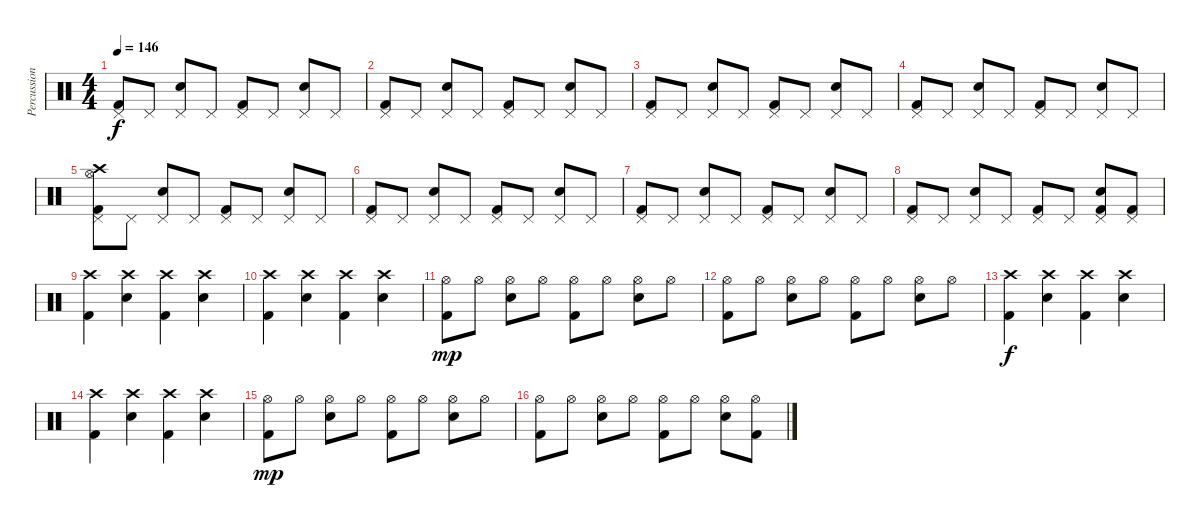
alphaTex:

\track ("Percussion" "Percussion") {instrument percussion}
\staff {score}
\articulation defaults
\ts (4 4)
\tempo 146
\clef neutral
\ks c
("Kick (hit) 2" "Pedal Hi-Hat (hit)").8{dy f} "Pedal Hi-Hat (hit)".8 ("Electric Snare (hit)" "Pedal Hi-Hat (hit)").8 "Pedal Hi-Hat (hit)".8 ("Kick (hit) 2" "Pedal Hi-Hat (hit)").8 "Pedal Hi-Hat (hit)".8 ("Electric Snare (hit)" "Pedal Hi-Hat (hit)").8 "Pedal Hi-Hat (hit)".8 |
("Kick (hit) 2" "Pedal Hi-Hat (hit)").8 "Pedal Hi-Hat (hit)".8 ("Electric Snare (hit)" "Pedal Hi-Hat (hit)").8 "Pedal Hi-Hat (hit)".8 ("Kick (hit) 2" "Pedal Hi-Hat (hit)").8 "Pedal Hi-Hat (hit)".8 ("Electric Snare (hit)" "Pedal Hi-Hat (hit)").8 "Pedal Hi-Hat (hit)".8 |
("Kick (hit) 2" "Pedal Hi-Hat (hit)").8 "Pedal Hi-Hat (hit)".8 ("Electric Snare (hit)" "Pedal Hi-Hat (hit)").8 "Pedal Hi-Hat (hit)".8 ("Kick (hit) 2" "Pedal Hi-Hat (hit)").8 "Pedal Hi-Hat (hit)".8 ("Electric Snare (hit)" "Pedal Hi-Hat (hit)").8 "Pedal Hi-Hat (hit)".8 |
("Kick (hit) 2" "Pedal Hi-Hat (hit)").8 "Pedal Hi-Hat (hit)".8 ("Electric Snare (hit)" "Pedal Hi-Hat (hit)").8 "Pedal Hi-Hat (hit)".8 ("Kick (hit) 2" "Pedal Hi-Hat (hit)").8 "Pedal Hi-Hat (hit)".8 ("Electric Snare (hit)" "Pedal Hi-Hat (hit)").8 "Pedal Hi-Hat (hit)".8 |
("Kick (hit) 2" "Pedal Hi-Hat (hit)" "Crash high (hit)" "Hi-Hat (open)").8 "Pedal Hi-Hat (hit)".8 ("Electric Snare (hit)" "Pedal Hi-Hat (hit)").8 "Pedal Hi-Hat (hit)".8 ("Kick (hit) 2" "Pedal Hi-Hat (hit)").8 "Pedal Hi-Hat (hit)".8 ("Electric Snare (hit)" "Pedal Hi-Hat (hit)").8 "Pedal Hi-Hat (hit)".8 |
("Kick (hit) 2" "Pedal Hi-Hat (hit)").8 "Pedal Hi-Hat (hit)".8 ("Electric Snare (hit)" "Pedal Hi-Hat (hit)").8 "Pedal Hi-Hat (hit)".8 ("Kick (hit) 2" "Pedal Hi-Hat (hit)").8 "Pedal Hi-Hat (hit)".8 ("Electric Snare (hit)" "Pedal Hi-Hat (hit)").8 "Pedal Hi-Hat (hit)".8 |
("Kick (hit) 2" "Pedal Hi-Hat (hit)").8 "Pedal Hi-Hat (hit)".8 ("Electric Snare (hit)" "Pedal Hi-Hat (hit)").8 "Pedal Hi-Hat (hit)".8 ("Kick (hit) 2" "Pedal Hi-Hat (hit)").8 "Pedal Hi-Hat (hit)".8 ("Electric Snare (hit)" "Pedal Hi-Hat (hit)").8 "Pedal Hi-Hat (hit)".8 |
("Kick (hit) 2" "Pedal Hi-Hat (hit)").8 "Pedal Hi-Hat (hit)".8 ("Electric Snare (hit)" "Pedal Hi-Hat (hit)").8 "Pedal Hi-Hat (hit)".8 ("Kick (hit) 2" "Pedal Hi-Hat (hit)").8 "Pedal Hi-Hat (hit)".8 ("Electric Snare (hit)" "Pedal Hi-Hat (hit)" "Kick (hit) 2").8 ("Pedal Hi-Hat (hit)" "Kick (hit) 2").8 |
("Kick (hit) 2" "Crash high (hit)").4 ("Electric Snare (hit)" "Crash high (hit)").4 ("Kick (hit) 2" "Crash high (hit)").4 ("Electric Snare (hit)" "Crash high (hit)").4 |
("Kick (hit) 2" "Crash high (hit)").4 ("Electric Snare (hit)" "Crash high (hit)").4 ("Kick (hit) 2" "Crash high (hit)").4 ("Electric Snare (hit)" "Crash high (hit)").4 |
("Kick (hit) 2" "Hi-Hat (open)").8{dy mp} "Hi-Hat (open)".8 ("Electric Snare (hit)" "Hi-Hat (open)").8 "Hi-Hat (open)".8 ("Kick (hit) 2" "Hi-Hat (open)").8 "Hi-Hat (open)".8 ("Electric Snare (hit)" "Hi-Hat (open)").8 "Hi-Hat (open)".8 |
("Kick (hit) 2" "Hi-Hat (open)").8 "Hi-Hat (open)".8 ("Electric Snare (hit)" "Hi-Hat (open)").8 "Hi-Hat (open)".8 ("Kick (hit) 2" "Hi-Hat (open)").8 "Hi-Hat (open)".8 ("Electric Snare (hit)" "Hi-Hat (open)").8 "Hi-Hat (open)".8 |
("Kick (hit) 2" "Crash high (hit)").4{dy f} ("Electric Snare (hit)" "Crash high (hit)").4 ("Kick (hit) 2" "Crash high (hit)").4 ("Electric Snare (hit)" "Crash high (hit)").4 |
("Kick (hit) 2" "Crash high (hit)").4 ("Electric Snare (hit)" "Crash high (hit)").4 ("Kick (hit) 2" "Crash high (hit)").4 ("Electric Snare (hit)" "Crash high (hit)").4 |
("Kick (hit) 2" "Hi-Hat (open)").8{dy mp} "Hi-Hat (open)".8 ("Electric Snare (hit)" "Hi-Hat (open)").8 "Hi-Hat (open)".8 ("Kick (hit) 2" "Hi-Hat (open)").8 "Hi-Hat (open)".8 ("Electric Snare (hit)" "Hi-Hat (open)").8 "Hi-Hat (open)".8 |
("Kick (hit) 2" "Hi-Hat (open)").8 "Hi-Hat (open)".8 ("Electric Snare (hit)" "Hi-Hat (open)").8 "Hi-Hat (open)".8 ("Kick (hit) 2" "Hi-Hat (open)").8 "Hi-Hat (open)".8 ("Electric Snare (hit)" "Hi-Hat (open)").8 ("Hi-Hat (open)" "Kick (hit) 2").8
